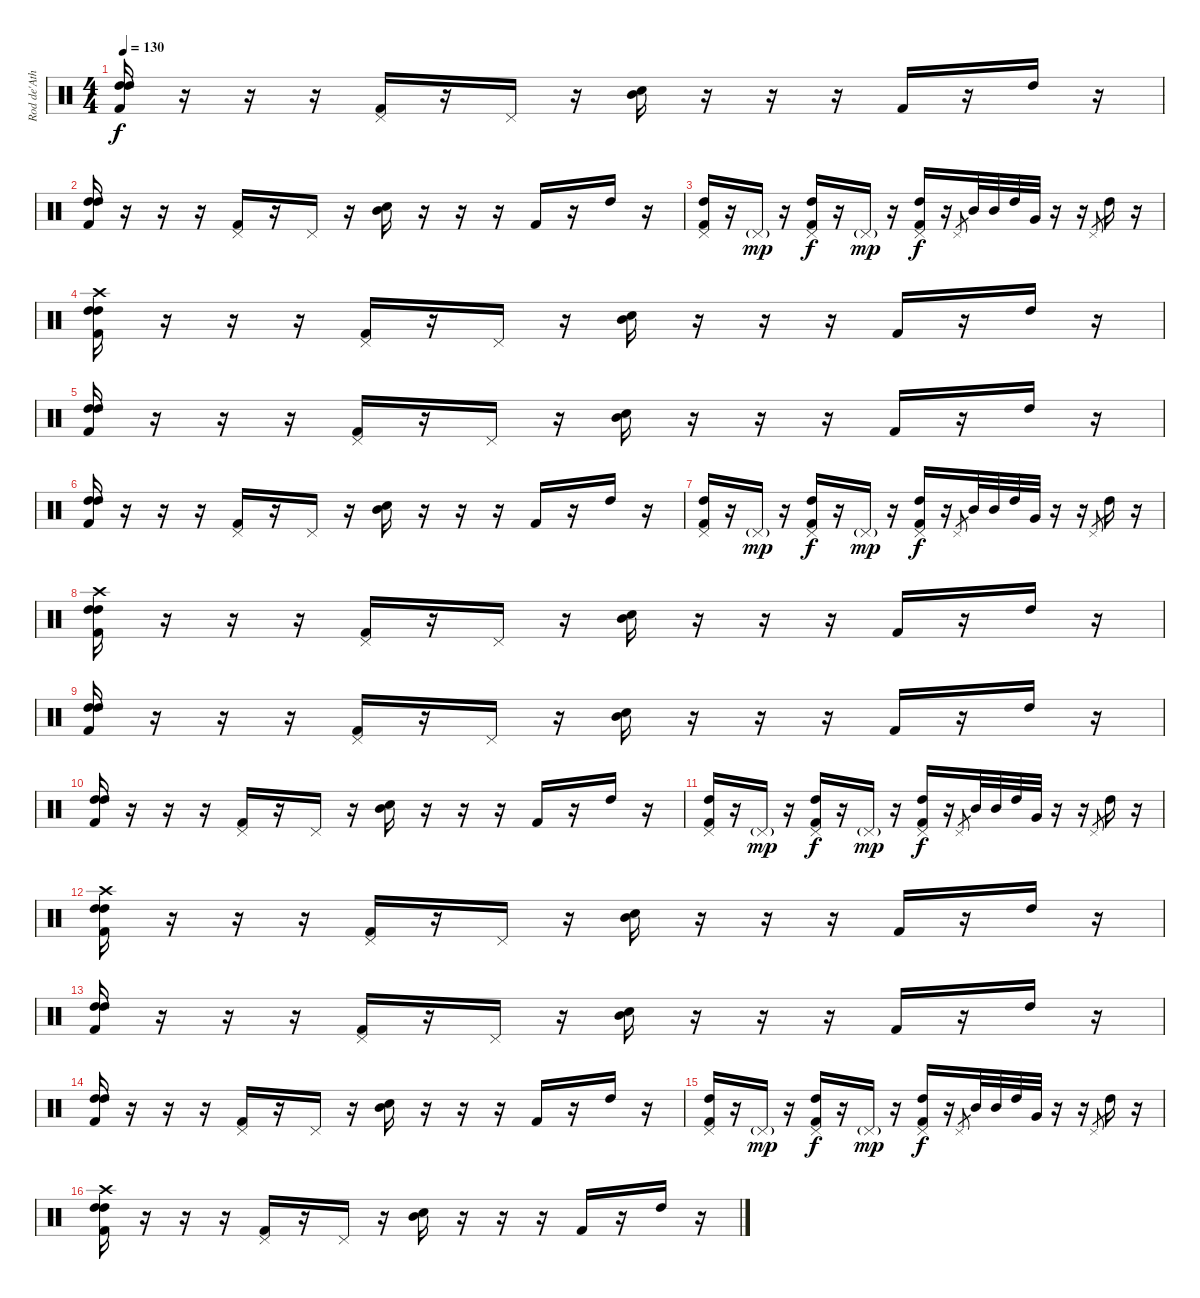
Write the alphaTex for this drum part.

\track ("Rod de'Ath" "Rod de'Ath") {instrument percussion}
\staff {score}
\articulation defaults
\ts (4 4)
\tempo 130
\clef neutral
\ks c
("High Tom (hit)" "High Tom (hit)" "Kick (hit) 2").16{dy f} r.16 r.16 r.16 ("Pedal Hi-Hat (hit)" "Kick (hit) 2").16 r.16 "Pedal Hi-Hat (hit)".16 r.16 ("Electric Snare (hit)" "Mid Tom (hit)").16 r.16 r.16 r.16 "Kick (hit) 2".16 r.16 "High Tom (hit)".16 r.16 |
("High Tom (hit)" "High Tom (hit)" "Kick (hit) 2").16 r.16 r.16 r.16 ("Pedal Hi-Hat (hit)" "Kick (hit) 2").16 r.16 "Pedal Hi-Hat (hit)".16 r.16 ("Electric Snare (hit)" "Mid Tom (hit)").16 r.16 r.16 r.16 "Kick (hit) 2".16 r.16 "High Tom (hit)".16 r.16 |
("Pedal Hi-Hat (hit)" "High Tom (hit)" "Kick (hit) 2").16 r.16 "Pedal Hi-Hat (hit)"{g}.16{dy mp} r.16 ("Pedal Hi-Hat (hit)" "High Tom (hit)" "Kick (hit) 2").16{dy f} r.16 "Pedal Hi-Hat (hit)"{g}.16{dy mp} r.16 ("Pedal Hi-Hat (hit)" "High Tom (hit)" "Kick (hit) 2").16{dy f} r.16 "Pedal Hi-Hat (hit)".8{gr} "Mid Tom (hit)".32 "Mid Tom (hit)".32 "High Tom (hit)".32 "Very Low Tom (hit)".32 r.16 r.16 "Pedal Hi-Hat (hit)".8{gr} "High Tom (hit)".16 r.16 |
("Crash high (hit)" "High Tom (hit)" "High Tom (hit)" "Kick (hit) 2").16 r.16 r.16 r.16 ("Pedal Hi-Hat (hit)" "Kick (hit) 2").16 r.16 "Pedal Hi-Hat (hit)".16 r.16 ("Electric Snare (hit)" "Mid Tom (hit)").16 r.16 r.16 r.16 "Kick (hit) 2".16 r.16 "High Tom (hit)".16 r.16 |
("High Tom (hit)" "High Tom (hit)" "Kick (hit) 2").16 r.16 r.16 r.16 ("Pedal Hi-Hat (hit)" "Kick (hit) 2").16 r.16 "Pedal Hi-Hat (hit)".16 r.16 ("Electric Snare (hit)" "Mid Tom (hit)").16 r.16 r.16 r.16 "Kick (hit) 2".16 r.16 "High Tom (hit)".16 r.16 |
("High Tom (hit)" "High Tom (hit)" "Kick (hit) 2").16 r.16 r.16 r.16 ("Pedal Hi-Hat (hit)" "Kick (hit) 2").16 r.16 "Pedal Hi-Hat (hit)".16 r.16 ("Electric Snare (hit)" "Mid Tom (hit)").16 r.16 r.16 r.16 "Kick (hit) 2".16 r.16 "High Tom (hit)".16 r.16 |
("Pedal Hi-Hat (hit)" "High Tom (hit)" "Kick (hit) 2").16 r.16 "Pedal Hi-Hat (hit)"{g}.16{dy mp} r.16 ("Pedal Hi-Hat (hit)" "High Tom (hit)" "Kick (hit) 2").16{dy f} r.16 "Pedal Hi-Hat (hit)"{g}.16{dy mp} r.16 ("Pedal Hi-Hat (hit)" "High Tom (hit)" "Kick (hit) 2").16{dy f} r.16 "Pedal Hi-Hat (hit)".8{gr} "Mid Tom (hit)".32 "Mid Tom (hit)".32 "High Tom (hit)".32 "Very Low Tom (hit)".32 r.16 r.16 "Pedal Hi-Hat (hit)".8{gr} "High Tom (hit)".16 r.16 |
("Crash high (hit)" "High Tom (hit)" "High Tom (hit)" "Kick (hit) 2").16 r.16 r.16 r.16 ("Pedal Hi-Hat (hit)" "Kick (hit) 2").16 r.16 "Pedal Hi-Hat (hit)".16 r.16 ("Electric Snare (hit)" "Mid Tom (hit)").16 r.16 r.16 r.16 "Kick (hit) 2".16 r.16 "High Tom (hit)".16 r.16 |
("High Tom (hit)" "High Tom (hit)" "Kick (hit) 2").16 r.16 r.16 r.16 ("Pedal Hi-Hat (hit)" "Kick (hit) 2").16 r.16 "Pedal Hi-Hat (hit)".16 r.16 ("Electric Snare (hit)" "Mid Tom (hit)").16 r.16 r.16 r.16 "Kick (hit) 2".16 r.16 "High Tom (hit)".16 r.16 |
("High Tom (hit)" "High Tom (hit)" "Kick (hit) 2").16 r.16 r.16 r.16 ("Pedal Hi-Hat (hit)" "Kick (hit) 2").16 r.16 "Pedal Hi-Hat (hit)".16 r.16 ("Electric Snare (hit)" "Mid Tom (hit)").16 r.16 r.16 r.16 "Kick (hit) 2".16 r.16 "High Tom (hit)".16 r.16 |
("Pedal Hi-Hat (hit)" "High Tom (hit)" "Kick (hit) 2").16 r.16 "Pedal Hi-Hat (hit)"{g}.16{dy mp} r.16 ("Pedal Hi-Hat (hit)" "High Tom (hit)" "Kick (hit) 2").16{dy f} r.16 "Pedal Hi-Hat (hit)"{g}.16{dy mp} r.16 ("Pedal Hi-Hat (hit)" "High Tom (hit)" "Kick (hit) 2").16{dy f} r.16 "Pedal Hi-Hat (hit)".8{gr} "Mid Tom (hit)".32 "Mid Tom (hit)".32 "High Tom (hit)".32 "Very Low Tom (hit)".32 r.16 r.16 "Pedal Hi-Hat (hit)".8{gr} "High Tom (hit)".16 r.16 |
("Crash high (hit)" "High Tom (hit)" "High Tom (hit)" "Kick (hit) 2").16 r.16 r.16 r.16 ("Pedal Hi-Hat (hit)" "Kick (hit) 2").16 r.16 "Pedal Hi-Hat (hit)".16 r.16 ("Electric Snare (hit)" "Mid Tom (hit)").16 r.16 r.16 r.16 "Kick (hit) 2".16 r.16 "High Tom (hit)".16 r.16 |
("High Tom (hit)" "High Tom (hit)" "Kick (hit) 2").16 r.16 r.16 r.16 ("Pedal Hi-Hat (hit)" "Kick (hit) 2").16 r.16 "Pedal Hi-Hat (hit)".16 r.16 ("Electric Snare (hit)" "Mid Tom (hit)").16 r.16 r.16 r.16 "Kick (hit) 2".16 r.16 "High Tom (hit)".16 r.16 |
("High Tom (hit)" "High Tom (hit)" "Kick (hit) 2").16 r.16 r.16 r.16 ("Pedal Hi-Hat (hit)" "Kick (hit) 2").16 r.16 "Pedal Hi-Hat (hit)".16 r.16 ("Electric Snare (hit)" "Mid Tom (hit)").16 r.16 r.16 r.16 "Kick (hit) 2".16 r.16 "High Tom (hit)".16 r.16 |
("Pedal Hi-Hat (hit)" "High Tom (hit)" "Kick (hit) 2").16 r.16 "Pedal Hi-Hat (hit)"{g}.16{dy mp} r.16 ("Pedal Hi-Hat (hit)" "High Tom (hit)" "Kick (hit) 2").16{dy f} r.16 "Pedal Hi-Hat (hit)"{g}.16{dy mp} r.16 ("Pedal Hi-Hat (hit)" "High Tom (hit)" "Kick (hit) 2").16{dy f} r.16 "Pedal Hi-Hat (hit)".8{gr} "Mid Tom (hit)".32 "Mid Tom (hit)".32 "High Tom (hit)".32 "Very Low Tom (hit)".32 r.16 r.16 "Pedal Hi-Hat (hit)".8{gr} "High Tom (hit)".16 r.16 |
("Crash high (hit)" "High Tom (hit)" "High Tom (hit)" "Kick (hit) 2").16 r.16 r.16 r.16 ("Pedal Hi-Hat (hit)" "Kick (hit) 2").16 r.16 "Pedal Hi-Hat (hit)".16 r.16 ("Electric Snare (hit)" "Mid Tom (hit)").16 r.16 r.16 r.16 "Kick (hit) 2".16 r.16 "High Tom (hit)".16 r.16
